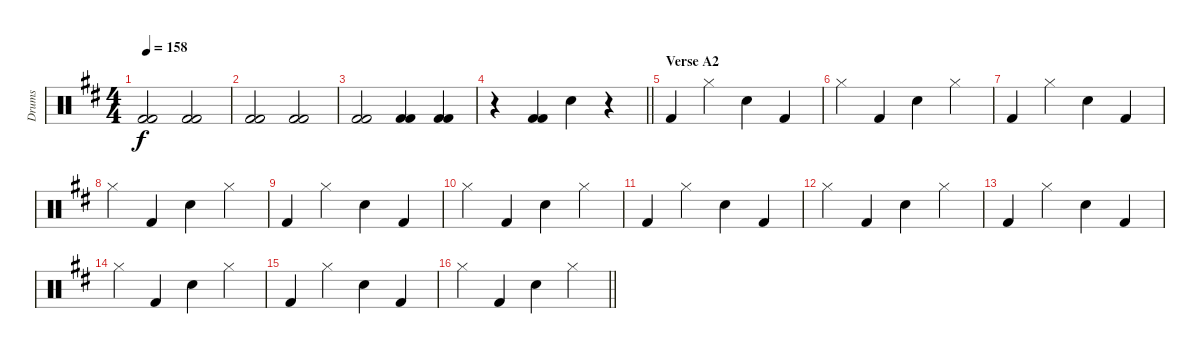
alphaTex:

\track ("Drums" "Drums") {instrument percussion}
\staff {score}
\articulation defaults
\ts (4 4)
\tempo 158
\clef neutral
\ks d
("Kick (hit) 2" "Kick (hit) 2").2{dy f} ("Kick (hit) 2" "Kick (hit) 2").2 |
("Kick (hit) 2" "Kick (hit) 2").2 ("Kick (hit) 2" "Kick (hit) 2").2 |
("Kick (hit) 2" "Kick (hit) 2").2 ("Kick (hit) 2" "Kick (hit) 2").4 ("Kick (hit) 2" "Kick (hit) 2").4 |
\barLineRight lightlight
r.4 ("Kick (hit) 2" "Kick (hit) 2").4 "Snare (hit) 2".4 r.4 |
\section ("" "Verse A2")
"Kick (hit) 2".4 "Hi-Hat (closed)".4 "Snare (hit) 2".4 "Kick (hit) 2".4 |
"Hi-Hat (closed)".4 "Kick (hit) 2".4 "Snare (hit) 2".4 "Hi-Hat (closed)".4 |
"Kick (hit) 2".4 "Hi-Hat (closed)".4 "Snare (hit) 2".4 "Kick (hit) 2".4 |
"Hi-Hat (closed)".4 "Kick (hit) 2".4 "Snare (hit) 2".4 "Hi-Hat (closed)".4 |
"Kick (hit) 2".4 "Hi-Hat (closed)".4 "Snare (hit) 2".4 "Kick (hit) 2".4 |
"Hi-Hat (closed)".4 "Kick (hit) 2".4 "Snare (hit) 2".4 "Hi-Hat (closed)".4 |
"Kick (hit) 2".4 "Hi-Hat (closed)".4 "Snare (hit) 2".4 "Kick (hit) 2".4 |
"Hi-Hat (closed)".4 "Kick (hit) 2".4 "Snare (hit) 2".4 "Hi-Hat (closed)".4 |
"Kick (hit) 2".4 "Hi-Hat (closed)".4 "Snare (hit) 2".4 "Kick (hit) 2".4 |
"Hi-Hat (closed)".4 "Kick (hit) 2".4 "Snare (hit) 2".4 "Hi-Hat (closed)".4 |
"Kick (hit) 2".4 "Hi-Hat (closed)".4 "Snare (hit) 2".4 "Kick (hit) 2".4 |
\barLineRight lightlight "Hi-Hat (closed)".4 "Kick (hit) 2".4 "Snare (hit) 2".4 "Hi-Hat (closed)".4
